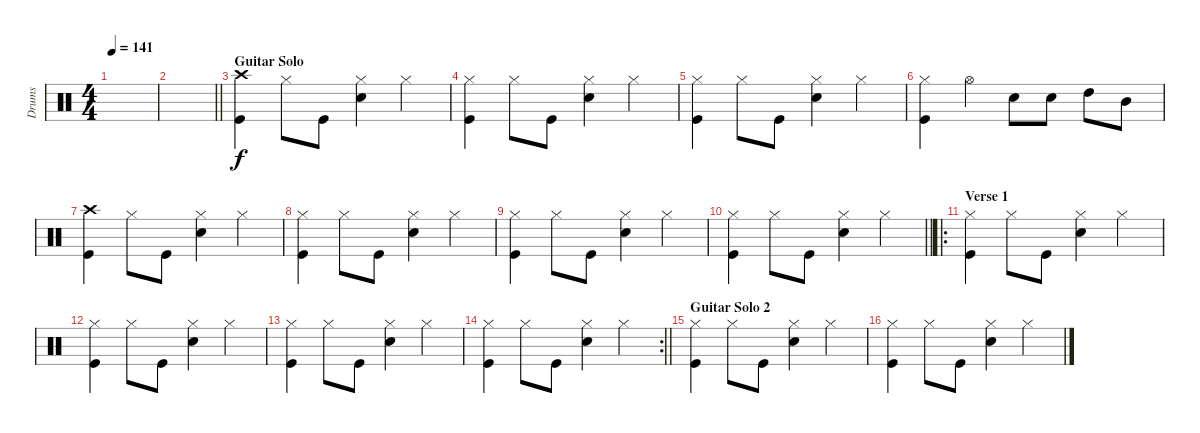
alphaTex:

\track ("Drums" "Drums") {instrument percussion}
\staff {score}
\articulation defaults
\ts (4 4)
\tempo 141
\clef neutral
\ks c
|
\barLineRight lightlight
|
\section ("" "Guitar Solo")
("Crash high (hit)" "Kick (hit)").4 "Hi-Hat (closed)".8 "Kick (hit)".8 ("Hi-Hat (closed)" "Snare (hit) 2").4 "Hi-Hat (closed)".4 |
("Hi-Hat (closed)" "Kick (hit)").4 "Hi-Hat (closed)".8 "Kick (hit)".8 ("Hi-Hat (closed)" "Snare (hit) 2").4 "Hi-Hat (closed)".4 |
("Hi-Hat (closed)" "Kick (hit)").4 "Hi-Hat (closed)".8 "Kick (hit)".8 ("Hi-Hat (closed)" "Snare (hit) 2").4 "Hi-Hat (closed)".4 |
("Hi-Hat (closed)" "Kick (hit)").4 "Hi-Hat (open)".4 "Snare (hit) 2".8 "Snare (hit) 2".8 "High Tom (hit)".8 "Mid Tom (hit)".8 |
("Crash high (hit)" "Kick (hit)").4 "Hi-Hat (closed)".8 "Kick (hit)".8 ("Hi-Hat (closed)" "Snare (hit) 2").4 "Hi-Hat (closed)".4 |
("Hi-Hat (closed)" "Kick (hit)").4 "Hi-Hat (closed)".8 "Kick (hit)".8 ("Hi-Hat (closed)" "Snare (hit) 2").4 "Hi-Hat (closed)".4 |
("Hi-Hat (closed)" "Kick (hit)").4 "Hi-Hat (closed)".8 "Kick (hit)".8 ("Hi-Hat (closed)" "Snare (hit) 2").4 "Hi-Hat (closed)".4 |
\barLineRight lightlight
("Hi-Hat (closed)" "Kick (hit)").4 "Hi-Hat (closed)".8 "Kick (hit)".8 ("Hi-Hat (closed)" "Snare (hit) 2").4 "Hi-Hat (closed)".4 |
\ro
\section ("" "Verse 1")
("Hi-Hat (closed)" "Kick (hit)").4 "Hi-Hat (closed)".8 "Kick (hit)".8 ("Hi-Hat (closed)" "Snare (hit) 2").4 "Hi-Hat (closed)".4 |
("Hi-Hat (closed)" "Kick (hit)").4 "Hi-Hat (closed)".8 "Kick (hit)".8 ("Hi-Hat (closed)" "Snare (hit) 2").4 "Hi-Hat (closed)".4 |
("Hi-Hat (closed)" "Kick (hit)").4 "Hi-Hat (closed)".8 "Kick (hit)".8 ("Hi-Hat (closed)" "Snare (hit) 2").4 "Hi-Hat (closed)".4 |
\rc 2
\barLineRight lightlight
("Hi-Hat (closed)" "Kick (hit)").4 "Hi-Hat (closed)".8 "Kick (hit)".8 ("Hi-Hat (closed)" "Snare (hit) 2").4 "Hi-Hat (closed)".4 |
\section ("" "Guitar Solo 2")
("Hi-Hat (closed)" "Kick (hit)").4 "Hi-Hat (closed)".8 "Kick (hit)".8 ("Hi-Hat (closed)" "Snare (hit) 2").4 "Hi-Hat (closed)".4 |
("Hi-Hat (closed)" "Kick (hit)").4 "Hi-Hat (closed)".8 "Kick (hit)".8 ("Hi-Hat (closed)" "Snare (hit) 2").4 "Hi-Hat (closed)".4
